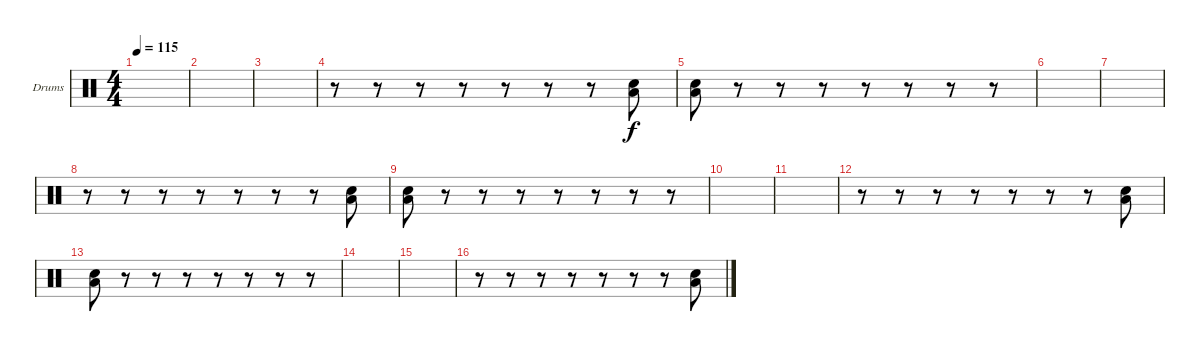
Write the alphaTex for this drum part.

\defaultSystemsLayout 4
\bracketExtendMode groupsimilarinstruments
\firstSystemTrackNameOrientation horizontal
\otherSystemsTrackNameOrientation horizontal
\track ("Drumkit" "Drums") {instrument percussion}
\staff {score}
\articulation defaults
\ts (4 4)
\tempo 115
\clef neutral
\ks c
|
|
|
r.8 r.8 r.8 r.8 r.8 r.8 r.8 ("Low Tom (hit)" "Snare (hit) 2").8 |
("Snare (hit) 2" "Low Tom (hit)").8 r.8 r.8 r.8 r.8 r.8 r.8 r.8 |
|
|
r.8 r.8 r.8 r.8 r.8 r.8 r.8 ("Low Tom (hit)" "Snare (hit) 2").8 |
("Snare (hit) 2" "Low Tom (hit)").8 r.8 r.8 r.8 r.8 r.8 r.8 r.8 |
|
|
r.8 r.8 r.8 r.8 r.8 r.8 r.8 ("Low Tom (hit)" "Snare (hit) 2").8 |
("Snare (hit) 2" "Low Tom (hit)").8 r.8 r.8 r.8 r.8 r.8 r.8 r.8 |
|
|
r.8 r.8 r.8 r.8 r.8 r.8 r.8 ("Low Tom (hit)" "Snare (hit) 2").8
